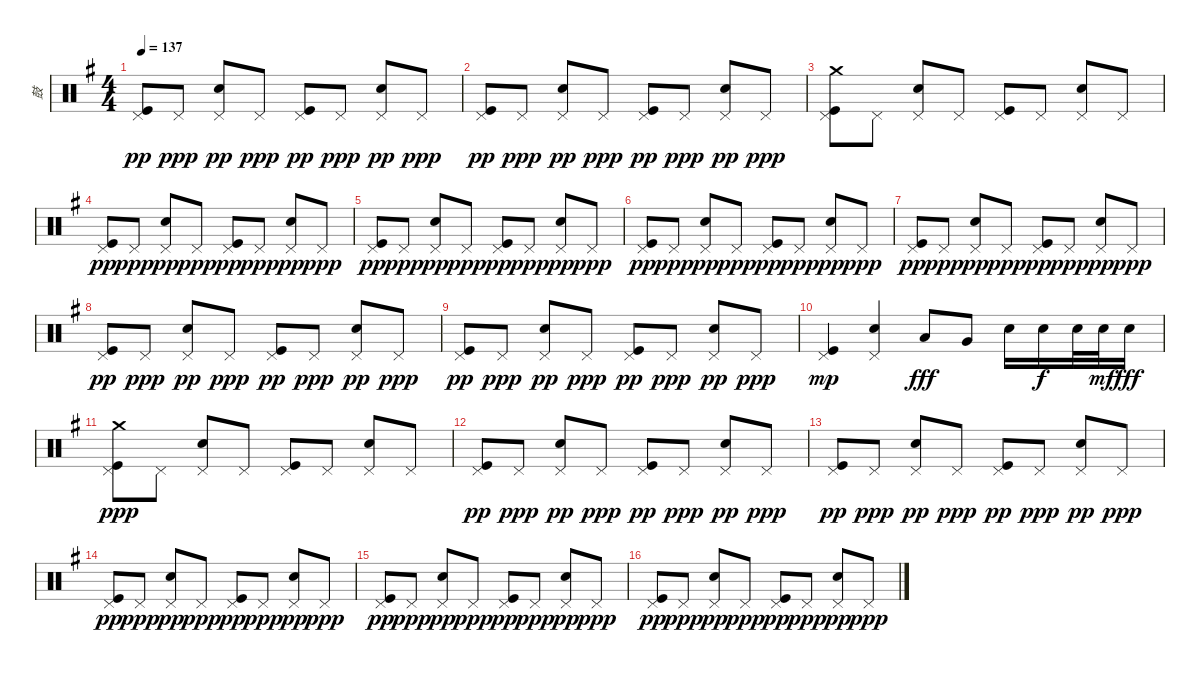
\track ("鼓" "鼓") {instrument percussion}
\staff {score}
\articulation defaults
\ts (4 4)
\tempo 137
\clef neutral
\ks g
("Kick (hit)" "Pedal Hi-Hat (hit)").8{dy pp} "Pedal Hi-Hat (hit)".8{dy ppp} ("Snare (hit) 2" "Pedal Hi-Hat (hit)").8{dy pp} "Pedal Hi-Hat (hit)".8{dy ppp} ("Kick (hit)" "Pedal Hi-Hat (hit)").8{dy pp} "Pedal Hi-Hat (hit)".8{dy ppp} ("Snare (hit) 2" "Pedal Hi-Hat (hit)").8{dy pp} "Pedal Hi-Hat (hit)".8{dy ppp} |
("Kick (hit)" "Pedal Hi-Hat (hit)").8{dy pp} "Pedal Hi-Hat (hit)".8{dy ppp} ("Snare (hit) 2" "Pedal Hi-Hat (hit)").8{dy pp} "Pedal Hi-Hat (hit)".8{dy ppp} ("Kick (hit)" "Pedal Hi-Hat (hit)").8{dy pp} "Pedal Hi-Hat (hit)".8{dy ppp} ("Snare (hit) 2" "Pedal Hi-Hat (hit)").8{dy pp} "Pedal Hi-Hat (hit)".8{dy ppp} |
("Crash medium (hit)" "Kick (hit)" "Pedal Hi-Hat (hit)").8 "Pedal Hi-Hat (hit)".8 ("Snare (hit) 2" "Pedal Hi-Hat (hit)").8 "Pedal Hi-Hat (hit)".8 ("Kick (hit)" "Pedal Hi-Hat (hit)").8 "Pedal Hi-Hat (hit)".8 ("Snare (hit) 2" "Pedal Hi-Hat (hit)").8 "Pedal Hi-Hat (hit)".8 |
("Kick (hit)" "Pedal Hi-Hat (hit)").8{dy pp} "Pedal Hi-Hat (hit)".8{dy ppp} ("Snare (hit) 2" "Pedal Hi-Hat (hit)").8{dy pp} "Pedal Hi-Hat (hit)".8{dy ppp} ("Kick (hit)" "Pedal Hi-Hat (hit)").8{dy pp} "Pedal Hi-Hat (hit)".8{dy ppp} ("Snare (hit) 2" "Pedal Hi-Hat (hit)").8{dy pp} "Pedal Hi-Hat (hit)".8{dy ppp} |
("Kick (hit)" "Pedal Hi-Hat (hit)").8{dy pp} "Pedal Hi-Hat (hit)".8{dy ppp} ("Snare (hit) 2" "Pedal Hi-Hat (hit)").8{dy pp} "Pedal Hi-Hat (hit)".8{dy ppp} ("Kick (hit)" "Pedal Hi-Hat (hit)").8{dy pp} "Pedal Hi-Hat (hit)".8{dy ppp} ("Snare (hit) 2" "Pedal Hi-Hat (hit)").8{dy pp} "Pedal Hi-Hat (hit)".8{dy ppp} |
("Kick (hit)" "Pedal Hi-Hat (hit)").8{dy pp} "Pedal Hi-Hat (hit)".8{dy ppp} ("Snare (hit) 2" "Pedal Hi-Hat (hit)").8{dy pp} "Pedal Hi-Hat (hit)".8{dy ppp} ("Kick (hit)" "Pedal Hi-Hat (hit)").8{dy pp} "Pedal Hi-Hat (hit)".8{dy ppp} ("Snare (hit) 2" "Pedal Hi-Hat (hit)").8{dy pp} "Pedal Hi-Hat (hit)".8{dy ppp} |
("Kick (hit)" "Pedal Hi-Hat (hit)").8{dy pp} "Pedal Hi-Hat (hit)".8{dy ppp} ("Snare (hit) 2" "Pedal Hi-Hat (hit)").8{dy pp} "Pedal Hi-Hat (hit)".8{dy ppp} ("Kick (hit)" "Pedal Hi-Hat (hit)").8{dy pp} "Pedal Hi-Hat (hit)".8{dy ppp} ("Snare (hit) 2" "Pedal Hi-Hat (hit)").8{dy pp} "Pedal Hi-Hat (hit)".8{dy ppp} |
("Kick (hit)" "Pedal Hi-Hat (hit)").8{dy pp} "Pedal Hi-Hat (hit)".8{dy ppp} ("Snare (hit) 2" "Pedal Hi-Hat (hit)").8{dy pp} "Pedal Hi-Hat (hit)".8{dy ppp} ("Kick (hit)" "Pedal Hi-Hat (hit)").8{dy pp} "Pedal Hi-Hat (hit)".8{dy ppp} ("Snare (hit) 2" "Pedal Hi-Hat (hit)").8{dy pp} "Pedal Hi-Hat (hit)".8{dy ppp} |
("Kick (hit)" "Pedal Hi-Hat (hit)").8{dy pp} "Pedal Hi-Hat (hit)".8{dy ppp} ("Snare (hit) 2" "Pedal Hi-Hat (hit)").8{dy pp} "Pedal Hi-Hat (hit)".8{dy ppp} ("Kick (hit)" "Pedal Hi-Hat (hit)").8{dy pp} "Pedal Hi-Hat (hit)".8{dy ppp} ("Snare (hit) 2" "Pedal Hi-Hat (hit)").8{dy pp} "Pedal Hi-Hat (hit)".8{dy ppp} |
("Kick (hit)" "Pedal Hi-Hat (hit)").4{dy mp} ("Snare (hit) 2" "Pedal Hi-Hat (hit)").4 "Low Tom (hit)".8{dy fff} "Very Low Tom (hit)".8 "Snare (hit) 2".16 "Snare (hit) 2".16{dy f} "Snare (hit) 2".32 "Snare (hit) 2".32{dy mf} "Snare (hit) 2".16{dy fff} |
("Crash medium (hit)" "Kick (hit)" "Pedal Hi-Hat (hit)").8{dy ppp} "Pedal Hi-Hat (hit)".8 ("Snare (hit) 2" "Pedal Hi-Hat (hit)").8 "Pedal Hi-Hat (hit)".8 ("Kick (hit)" "Pedal Hi-Hat (hit)").8 "Pedal Hi-Hat (hit)".8 ("Snare (hit) 2" "Pedal Hi-Hat (hit)").8 "Pedal Hi-Hat (hit)".8 |
("Kick (hit)" "Pedal Hi-Hat (hit)").8{dy pp} "Pedal Hi-Hat (hit)".8{dy ppp} ("Snare (hit) 2" "Pedal Hi-Hat (hit)").8{dy pp} "Pedal Hi-Hat (hit)".8{dy ppp} ("Kick (hit)" "Pedal Hi-Hat (hit)").8{dy pp} "Pedal Hi-Hat (hit)".8{dy ppp} ("Snare (hit) 2" "Pedal Hi-Hat (hit)").8{dy pp} "Pedal Hi-Hat (hit)".8{dy ppp} |
("Kick (hit)" "Pedal Hi-Hat (hit)").8{dy pp} "Pedal Hi-Hat (hit)".8{dy ppp} ("Snare (hit) 2" "Pedal Hi-Hat (hit)").8{dy pp} "Pedal Hi-Hat (hit)".8{dy ppp} ("Kick (hit)" "Pedal Hi-Hat (hit)").8{dy pp} "Pedal Hi-Hat (hit)".8{dy ppp} ("Snare (hit) 2" "Pedal Hi-Hat (hit)").8{dy pp} "Pedal Hi-Hat (hit)".8{dy ppp} |
("Kick (hit)" "Pedal Hi-Hat (hit)").8{dy pp} "Pedal Hi-Hat (hit)".8{dy ppp} ("Snare (hit) 2" "Pedal Hi-Hat (hit)").8{dy pp} "Pedal Hi-Hat (hit)".8{dy ppp} ("Kick (hit)" "Pedal Hi-Hat (hit)").8{dy pp} "Pedal Hi-Hat (hit)".8{dy ppp} ("Snare (hit) 2" "Pedal Hi-Hat (hit)").8{dy pp} "Pedal Hi-Hat (hit)".8{dy ppp} |
("Kick (hit)" "Pedal Hi-Hat (hit)").8{dy pp} "Pedal Hi-Hat (hit)".8{dy ppp} ("Snare (hit) 2" "Pedal Hi-Hat (hit)").8{dy pp} "Pedal Hi-Hat (hit)".8{dy ppp} ("Kick (hit)" "Pedal Hi-Hat (hit)").8{dy pp} "Pedal Hi-Hat (hit)".8{dy ppp} ("Snare (hit) 2" "Pedal Hi-Hat (hit)").8{dy pp} "Pedal Hi-Hat (hit)".8{dy ppp} |
("Kick (hit)" "Pedal Hi-Hat (hit)").8{dy pp} "Pedal Hi-Hat (hit)".8{dy ppp} ("Snare (hit) 2" "Pedal Hi-Hat (hit)").8{dy pp} "Pedal Hi-Hat (hit)".8{dy ppp} ("Kick (hit)" "Pedal Hi-Hat (hit)").8{dy pp} "Pedal Hi-Hat (hit)".8{dy ppp} ("Snare (hit) 2" "Pedal Hi-Hat (hit)").8{dy pp} "Pedal Hi-Hat (hit)".8{dy ppp}
